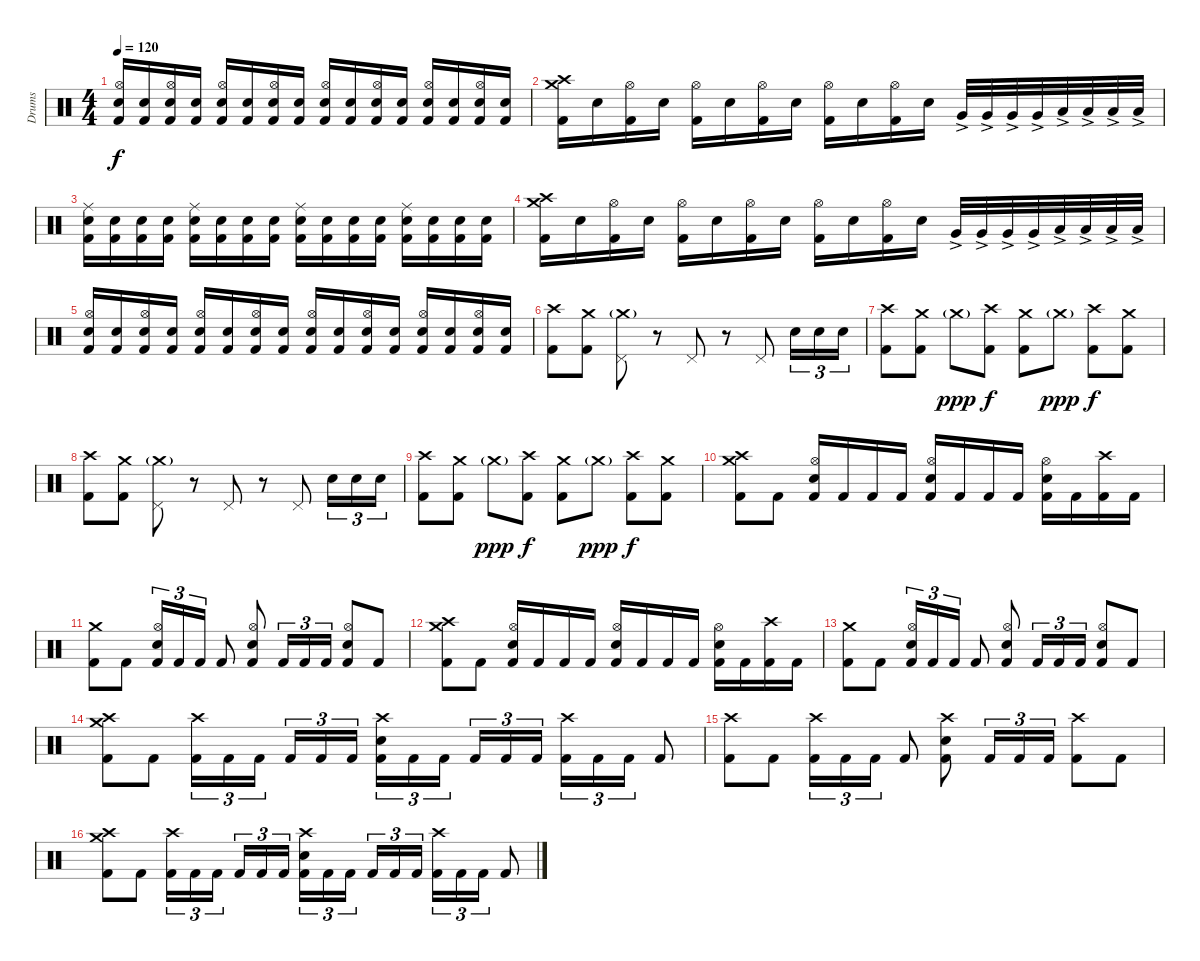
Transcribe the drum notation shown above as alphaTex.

\track ("Drums" "Drums") {instrument percussion}
\staff {score}
\articulation defaults
\ts (4 4)
\tempo 120
\clef neutral
\ks c
("Electric Snare (hit)" "Hi-Hat (open)" "Kick (hit) 2").16{dy f} ("Electric Snare (hit)" "Kick (hit) 2").16 ("Electric Snare (hit)" "Hi-Hat (open)" "Kick (hit) 2").16 ("Electric Snare (hit)" "Kick (hit) 2").16 ("Electric Snare (hit)" "Hi-Hat (open)" "Kick (hit) 2").16 ("Electric Snare (hit)" "Kick (hit) 2").16 ("Electric Snare (hit)" "Hi-Hat (open)" "Kick (hit) 2").16 ("Electric Snare (hit)" "Kick (hit) 2").16 ("Electric Snare (hit)" "Hi-Hat (open)" "Kick (hit) 2").16 ("Electric Snare (hit)" "Kick (hit) 2").16 ("Electric Snare (hit)" "Hi-Hat (open)" "Kick (hit) 2").16 ("Electric Snare (hit)" "Kick (hit) 2").16 ("Electric Snare (hit)" "Hi-Hat (open)" "Kick (hit) 2").16 ("Electric Snare (hit)" "Kick (hit) 2").16 ("Electric Snare (hit)" "Hi-Hat (open)" "Kick (hit) 2").16 ("Electric Snare (hit)" "Kick (hit) 2").16 |
("Crash medium (hit)" "Crash high (hit)" "Kick (hit) 2").16 "Electric Snare (hit)".16 ("Hi-Hat (open)" "Kick (hit) 2").16 "Electric Snare (hit)".16 ("Hi-Hat (open)" "Kick (hit) 2").16 "Electric Snare (hit)".16 ("Hi-Hat (open)" "Kick (hit) 2").16 "Electric Snare (hit)".16 ("Hi-Hat (open)" "Kick (hit) 2").16 "Electric Snare (hit)".16 ("Hi-Hat (open)" "Kick (hit) 2").16 "Electric Snare (hit)".16 "Very Low Tom (hit)"{ac}.32 "Very Low Tom (hit)"{ac}.32 "Very Low Tom (hit)"{ac}.32 "Very Low Tom (hit)"{ac}.32 "Low Floor Tom (hit)"{ac}.32 "Low Floor Tom (hit)"{ac}.32 "Low Floor Tom (hit)"{ac}.32 "Low Floor Tom (hit)"{ac}.32 |
("Electric Snare (hit)" "Ride (middle)" "Kick (hit) 2").16 ("Electric Snare (hit)" "Kick (hit) 2").16 ("Electric Snare (hit)" "Kick (hit) 2").16 ("Electric Snare (hit)" "Kick (hit) 2").16 ("Electric Snare (hit)" "Ride (middle)" "Kick (hit) 2").16 ("Electric Snare (hit)" "Kick (hit) 2").16 ("Electric Snare (hit)" "Kick (hit) 2").16 ("Electric Snare (hit)" "Kick (hit) 2").16 ("Electric Snare (hit)" "Ride (middle)" "Kick (hit) 2").16 ("Electric Snare (hit)" "Kick (hit) 2").16 ("Electric Snare (hit)" "Kick (hit) 2").16 ("Electric Snare (hit)" "Kick (hit) 2").16 ("Electric Snare (hit)" "Ride (middle)" "Kick (hit) 2").16 ("Electric Snare (hit)" "Kick (hit) 2").16 ("Electric Snare (hit)" "Kick (hit) 2").16 ("Electric Snare (hit)" "Kick (hit) 2").16 |
("Crash medium (hit)" "Crash high (hit)" "Kick (hit) 2").16 "Electric Snare (hit)".16 ("Hi-Hat (open)" "Kick (hit) 2").16 "Electric Snare (hit)".16 ("Hi-Hat (open)" "Kick (hit) 2").16 "Electric Snare (hit)".16 ("Hi-Hat (open)" "Kick (hit) 2").16 "Electric Snare (hit)".16 ("Hi-Hat (open)" "Kick (hit) 2").16 "Electric Snare (hit)".16 ("Hi-Hat (open)" "Kick (hit) 2").16 "Electric Snare (hit)".16 "Very Low Tom (hit)"{ac}.32 "Very Low Tom (hit)"{ac}.32 "Very Low Tom (hit)"{ac}.32 "Very Low Tom (hit)"{ac}.32 "Low Floor Tom (hit)"{ac}.32 "Low Floor Tom (hit)"{ac}.32 "Low Floor Tom (hit)"{ac}.32 "Low Floor Tom (hit)"{ac}.32 |
("Electric Snare (hit)" "Hi-Hat (open)" "Kick (hit) 2").16 ("Electric Snare (hit)" "Kick (hit) 2").16 ("Electric Snare (hit)" "Hi-Hat (open)" "Kick (hit) 2").16 ("Electric Snare (hit)" "Kick (hit) 2").16 ("Electric Snare (hit)" "Hi-Hat (open)" "Kick (hit) 2").16 ("Electric Snare (hit)" "Kick (hit) 2").16 ("Electric Snare (hit)" "Hi-Hat (open)" "Kick (hit) 2").16 ("Electric Snare (hit)" "Kick (hit) 2").16 ("Electric Snare (hit)" "Hi-Hat (open)" "Kick (hit) 2").16 ("Electric Snare (hit)" "Kick (hit) 2").16 ("Electric Snare (hit)" "Hi-Hat (open)" "Kick (hit) 2").16 ("Electric Snare (hit)" "Kick (hit) 2").16 ("Electric Snare (hit)" "Hi-Hat (open)" "Kick (hit) 2").16 ("Electric Snare (hit)" "Kick (hit) 2").16 ("Electric Snare (hit)" "Hi-Hat (open)" "Kick (hit) 2").16 ("Electric Snare (hit)" "Kick (hit) 2").16 |
("Crash high (hit)" "Kick (hit) 2").8 ("Crash medium (hit)" "Kick (hit) 2").8 ("Crash medium (hit)"{g} "Pedal Hi-Hat (hit)").8 r.8 "Pedal Hi-Hat (hit)".8 r.8 "Pedal Hi-Hat (hit)".8 "Electric Snare (hit)".16{tu (3 2)} "Electric Snare (hit)".16{tu (3 2)} "Electric Snare (hit)".16{tu (3 2)} |
("Crash high (hit)" "Kick (hit) 2").8 ("Crash medium (hit)" "Kick (hit) 2").8 "Crash medium (hit)"{g}.8{dy ppp} ("Crash high (hit)" "Kick (hit) 2").8{dy f} ("Crash medium (hit)" "Kick (hit) 2").8 "Crash medium (hit)"{g}.8{dy ppp} ("Crash high (hit)" "Kick (hit) 2").8{dy f} ("Crash medium (hit)" "Kick (hit) 2").8 |
("Crash high (hit)" "Kick (hit) 2").8 ("Crash medium (hit)" "Kick (hit) 2").8 ("Crash medium (hit)"{g} "Pedal Hi-Hat (hit)").8 r.8 "Pedal Hi-Hat (hit)".8 r.8 "Pedal Hi-Hat (hit)".8 "Electric Snare (hit)".16{tu (3 2)} "Electric Snare (hit)".16{tu (3 2)} "Electric Snare (hit)".16{tu (3 2)} |
("Crash high (hit)" "Kick (hit) 2").8 ("Crash medium (hit)" "Kick (hit) 2").8 "Crash medium (hit)"{g}.8{dy ppp} ("Crash high (hit)" "Kick (hit) 2").8{dy f} ("Crash medium (hit)" "Kick (hit) 2").8 "Crash medium (hit)"{g}.8{dy ppp} ("Crash high (hit)" "Kick (hit) 2").8{dy f} ("Crash medium (hit)" "Kick (hit) 2").8 |
("Crash medium (hit)" "Crash high (hit)" "Kick (hit) 2").8 "Kick (hit) 2".8 ("Electric Snare (hit)" "Hi-Hat (open)" "Kick (hit) 2").16 "Kick (hit) 2".16 "Kick (hit) 2".16 "Kick (hit) 2".16 ("Electric Snare (hit)" "Hi-Hat (open)" "Kick (hit) 2").16 "Kick (hit) 2".16 "Kick (hit) 2".16 "Kick (hit) 2".16 ("Electric Snare (hit)" "Hi-Hat (open)" "Kick (hit) 2").16 "Kick (hit) 2".16 ("Crash high (hit)" "Kick (hit) 2").16 "Kick (hit) 2".16 |
("Crash medium (hit)" "Kick (hit) 2").8 "Kick (hit) 2".8 ("Electric Snare (hit)" "Hi-Hat (open)" "Kick (hit) 2").16{tu (3 2)} "Kick (hit) 2".16{tu (3 2)} "Kick (hit) 2".16{tu (3 2)} "Kick (hit) 2".8 ("Electric Snare (hit)" "Hi-Hat (open)" "Kick (hit) 2").8 "Kick (hit) 2".16{tu (3 2)} "Kick (hit) 2".16{tu (3 2)} "Kick (hit) 2".16{tu (3 2)} ("Electric Snare (hit)" "Hi-Hat (open)" "Kick (hit) 2").8 "Kick (hit) 2".8 |
("Crash medium (hit)" "Crash high (hit)" "Kick (hit) 2").8 "Kick (hit) 2".8 ("Electric Snare (hit)" "Hi-Hat (open)" "Kick (hit) 2").16 "Kick (hit) 2".16 "Kick (hit) 2".16 "Kick (hit) 2".16 ("Electric Snare (hit)" "Hi-Hat (open)" "Kick (hit) 2").16 "Kick (hit) 2".16 "Kick (hit) 2".16 "Kick (hit) 2".16 ("Electric Snare (hit)" "Hi-Hat (open)" "Kick (hit) 2").16 "Kick (hit) 2".16 ("Crash high (hit)" "Kick (hit) 2").16 "Kick (hit) 2".16 |
("Crash medium (hit)" "Kick (hit) 2").8 "Kick (hit) 2".8 ("Electric Snare (hit)" "Hi-Hat (open)" "Kick (hit) 2").16{tu (3 2)} "Kick (hit) 2".16{tu (3 2)} "Kick (hit) 2".16{tu (3 2)} "Kick (hit) 2".8 ("Electric Snare (hit)" "Hi-Hat (open)" "Kick (hit) 2").8 "Kick (hit) 2".16{tu (3 2)} "Kick (hit) 2".16{tu (3 2)} "Kick (hit) 2".16{tu (3 2)} ("Electric Snare (hit)" "Hi-Hat (open)" "Kick (hit) 2").8 "Kick (hit) 2".8 |
("Crash medium (hit)" "Crash high (hit)" "Kick (hit) 2").8 "Kick (hit) 2".8 ("Crash high (hit)" "Kick (hit) 2").16{tu (3 2)} "Kick (hit) 2".16{tu (3 2)} "Kick (hit) 2".16{tu (3 2)} "Kick (hit) 2".16{tu (3 2)} "Kick (hit) 2".16{tu (3 2)} "Kick (hit) 2".16{tu (3 2)} ("Crash high (hit)" "Electric Snare (hit)" "Kick (hit) 2").16{tu (3 2)} "Kick (hit) 2".16{tu (3 2)} "Kick (hit) 2".16{tu (3 2)} "Kick (hit) 2".16{tu (3 2)} "Kick (hit) 2".16{tu (3 2)} "Kick (hit) 2".16{tu (3 2)} ("Crash high (hit)" "Kick (hit) 2").16{tu (3 2)} "Kick (hit) 2".16{tu (3 2)} "Kick (hit) 2".16{tu (3 2)} "Kick (hit) 2".8 |
("Crash high (hit)" "Kick (hit) 2").8 "Kick (hit) 2".8 ("Crash high (hit)" "Kick (hit) 2").16{tu (3 2)} "Kick (hit) 2".16{tu (3 2)} "Kick (hit) 2".16{tu (3 2)} "Kick (hit) 2".8 ("Crash high (hit)" "Electric Snare (hit)" "Kick (hit) 2").8 "Kick (hit) 2".16{tu (3 2)} "Kick (hit) 2".16{tu (3 2)} "Kick (hit) 2".16{tu (3 2)} ("Crash high (hit)" "Kick (hit) 2").8 "Kick (hit) 2".8 |
("Crash medium (hit)" "Crash high (hit)" "Kick (hit) 2").8 "Kick (hit) 2".8 ("Crash high (hit)" "Kick (hit) 2").16{tu (3 2)} "Kick (hit) 2".16{tu (3 2)} "Kick (hit) 2".16{tu (3 2)} "Kick (hit) 2".16{tu (3 2)} "Kick (hit) 2".16{tu (3 2)} "Kick (hit) 2".16{tu (3 2)} ("Crash high (hit)" "Electric Snare (hit)" "Kick (hit) 2").16{tu (3 2)} "Kick (hit) 2".16{tu (3 2)} "Kick (hit) 2".16{tu (3 2)} "Kick (hit) 2".16{tu (3 2)} "Kick (hit) 2".16{tu (3 2)} "Kick (hit) 2".16{tu (3 2)} ("Crash high (hit)" "Kick (hit) 2").16{tu (3 2)} "Kick (hit) 2".16{tu (3 2)} "Kick (hit) 2".16{tu (3 2)} "Kick (hit) 2".8
